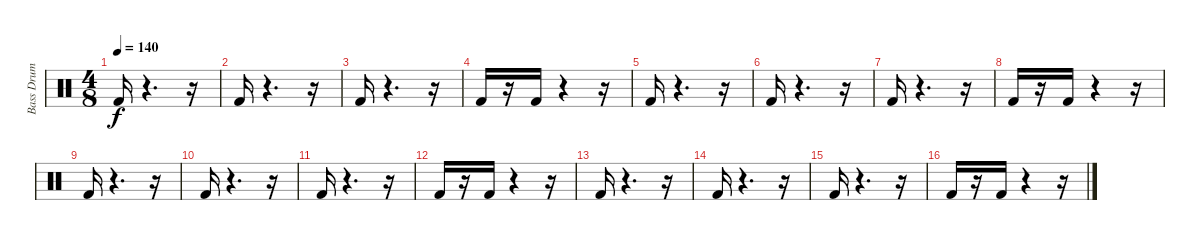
\track ("Bass Drum" "Bass Drum") {instrument percussion}
\staff {score}
\articulation defaults
\ts (4 8)
\tempo 140
\clef neutral
\ks c "Kick (hit) 2".16{dy f}
r.4{d} r.16 |
"Kick (hit) 2".16 r.4{d} r.16 |
"Kick (hit) 2".16 r.4{d} r.16 |
"Kick (hit) 2".16 r.16 "Kick (hit) 2".16 r.4 r.16 |
"Kick (hit) 2".16 r.4{d} r.16 |
"Kick (hit) 2".16 r.4{d} r.16 |
"Kick (hit) 2".16 r.4{d} r.16 |
"Kick (hit) 2".16 r.16 "Kick (hit) 2".16 r.4 r.16 |
"Kick (hit) 2".16 r.4{d} r.16 |
"Kick (hit) 2".16 r.4{d} r.16 |
"Kick (hit) 2".16 r.4{d} r.16 |
"Kick (hit) 2".16 r.16 "Kick (hit) 2".16 r.4 r.16 |
"Kick (hit) 2".16 r.4{d} r.16 |
"Kick (hit) 2".16 r.4{d} r.16 |
"Kick (hit) 2".16 r.4{d} r.16 |
"Kick (hit) 2".16 r.16 "Kick (hit) 2".16 r.4 r.16
